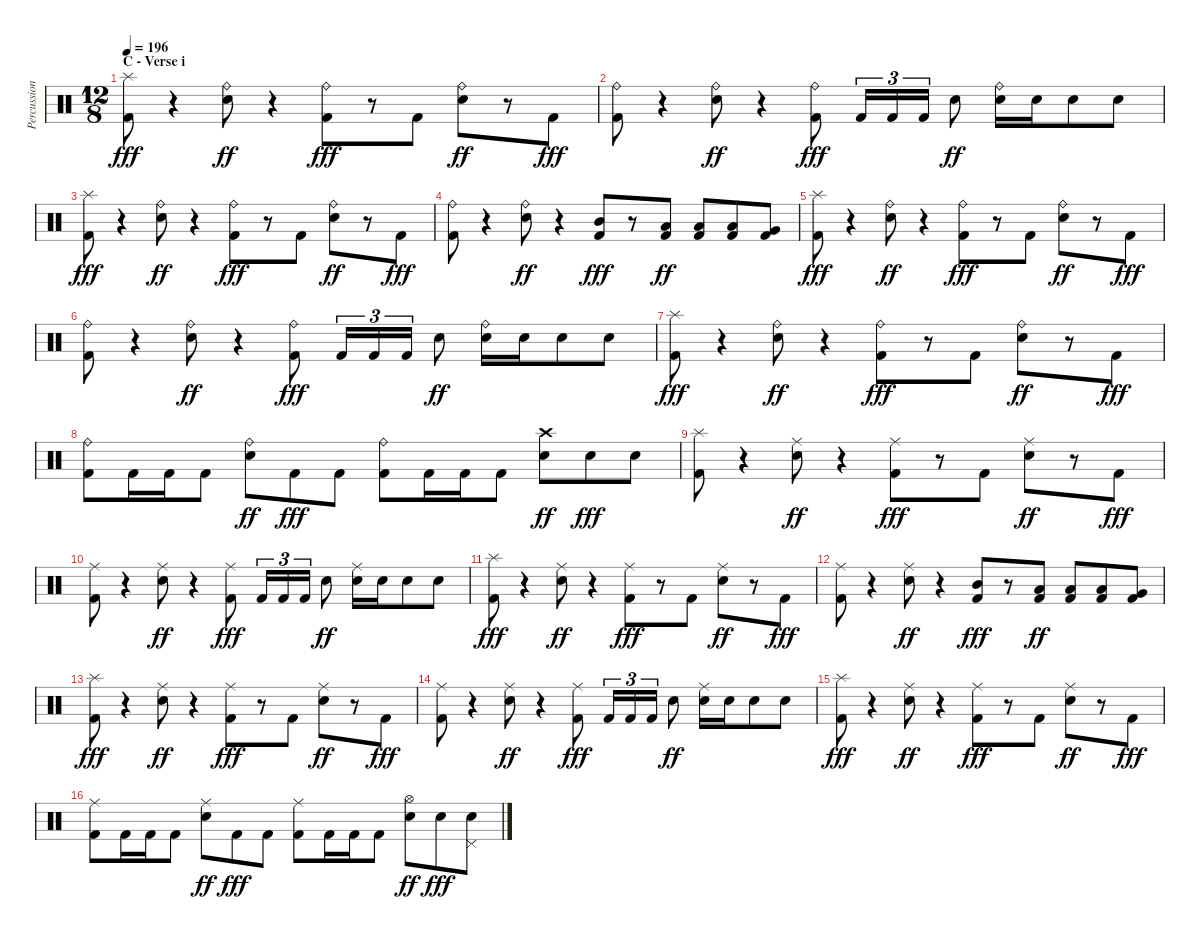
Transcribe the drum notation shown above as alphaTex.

\track ("Percussion" "Percussion") {instrument percussion}
\staff {score}
\articulation defaults
\ts (12 8)
\section ("" "C - Verse i")
\tempo 196
\clef neutral
\ks c
("Splash (hit)" "Kick (hit) 2").8{dy fff volume 12} r.4 ("Ride (bell)" "Electric Snare (hit)").8{dy ff} r.4 ("Ride (bell)" "Kick (hit) 2").8{dy fff} r.8 "Kick (hit) 2".8 ("Ride (bell)" "Electric Snare (hit)").8{dy ff} r.8 "Kick (hit) 2".8{dy fff} |
("Ride (bell)" "Kick (hit) 2").8 r.4 ("Ride (bell)" "Electric Snare (hit)").8{dy ff} r.4 ("Ride (bell)" "Kick (hit) 2").8{dy fff} "Kick (hit) 2".16{tu (3 2)} "Kick (hit) 2".16{tu (3 2)} "Kick (hit) 2".16{tu (3 2)} "Electric Snare (hit)".8{dy ff} ("Ride (bell)" "Electric Snare (hit)").16 "Electric Snare (hit)".16 "Electric Snare (hit)".8 "Electric Snare (hit)".8 |
("Splash (hit)" "Kick (hit) 2").8{dy fff} r.4 ("Ride (bell)" "Electric Snare (hit)").8{dy ff} r.4 ("Ride (bell)" "Kick (hit) 2").8{dy fff} r.8 "Kick (hit) 2".8 ("Ride (bell)" "Electric Snare (hit)").8{dy ff} r.8 "Kick (hit) 2".8{dy fff} |
("Ride (bell)" "Kick (hit) 2").8 r.4 ("Ride (bell)" "Electric Snare (hit)").8{dy ff} r.4 ("Mid Tom (hit)" "Kick (hit) 2").8{dy fff} r.8 ("Low Tom (hit)" "Kick (hit) 2").8{dy ff} ("Low Tom (hit)" "Kick (hit) 2").8 ("Low Tom (hit)" "Kick (hit) 2").8 ("Very Low Tom (hit)" "Kick (hit) 2").8 |
("Splash (hit)" "Kick (hit) 2").8{dy fff} r.4 ("Ride (bell)" "Electric Snare (hit)").8{dy ff} r.4 ("Ride (bell)" "Kick (hit) 2").8{dy fff} r.8 "Kick (hit) 2".8 ("Ride (bell)" "Electric Snare (hit)").8{dy ff} r.8 "Kick (hit) 2".8{dy fff} |
("Ride (bell)" "Kick (hit) 2").8 r.4 ("Ride (bell)" "Electric Snare (hit)").8{dy ff} r.4 ("Ride (bell)" "Kick (hit) 2").8{dy fff} "Kick (hit) 2".16{tu (3 2)} "Kick (hit) 2".16{tu (3 2)} "Kick (hit) 2".16{tu (3 2)} "Electric Snare (hit)".8{dy ff} ("Ride (bell)" "Electric Snare (hit)").16 "Electric Snare (hit)".16 "Electric Snare (hit)".8 "Electric Snare (hit)".8 |
("Splash (hit)" "Kick (hit) 2").8{dy fff} r.4 ("Ride (bell)" "Electric Snare (hit)").8{dy ff} r.4 ("Ride (bell)" "Kick (hit) 2").8{dy fff} r.8 "Kick (hit) 2".8 ("Ride (bell)" "Electric Snare (hit)").8{dy ff} r.8 "Kick (hit) 2".8{dy fff} |
("Ride (bell)" "Kick (hit) 2").8 "Kick (hit) 2".16 "Kick (hit) 2".16 "Kick (hit) 2".8 ("Ride (bell)" "Electric Snare (hit)").8{dy ff} "Kick (hit) 2".8{dy fff} "Kick (hit) 2".8 ("Ride (bell)" "Kick (hit) 2").8 "Kick (hit) 2".16 "Kick (hit) 2".16 "Kick (hit) 2".8 ("Crash high (hit)" "Electric Snare (hit)").8{dy ff} "Electric Snare (hit)".8{dy fff} "Electric Snare (hit)".8 |
("Splash (hit)" "Kick (hit) 2").8 r.4 ("Ride (middle)" "Electric Snare (hit)").8{dy ff} r.4 ("Ride (middle)" "Kick (hit) 2").8{dy fff} r.8 "Kick (hit) 2".8 ("Ride (middle)" "Electric Snare (hit)").8{dy ff} r.8 "Kick (hit) 2".8{dy fff} |
("Ride (middle)" "Kick (hit) 2").8 r.4 ("Ride (middle)" "Electric Snare (hit)").8{dy ff} r.4 ("Ride (middle)" "Kick (hit) 2").8{dy fff} "Kick (hit) 2".16{tu (3 2)} "Kick (hit) 2".16{tu (3 2)} "Kick (hit) 2".16{tu (3 2)} "Electric Snare (hit)".8{dy ff} ("Ride (middle)" "Electric Snare (hit)").16 "Electric Snare (hit)".16 "Electric Snare (hit)".8 "Electric Snare (hit)".8 |
("Splash (hit)" "Kick (hit) 2").8{dy fff} r.4 ("Ride (middle)" "Electric Snare (hit)").8{dy ff} r.4 ("Ride (middle)" "Kick (hit) 2").8{dy fff} r.8 "Kick (hit) 2".8 ("Ride (middle)" "Electric Snare (hit)").8{dy ff} r.8 "Kick (hit) 2".8{dy fff} |
("Ride (middle)" "Kick (hit) 2").8 r.4 ("Ride (middle)" "Electric Snare (hit)").8{dy ff} r.4 ("Mid Tom (hit)" "Kick (hit) 2").8{dy fff} r.8 ("Low Tom (hit)" "Kick (hit) 2").8{dy ff} ("Low Tom (hit)" "Kick (hit) 2").8 ("Low Tom (hit)" "Kick (hit) 2").8 ("Very Low Tom (hit)" "Kick (hit) 2").8 |
("Splash (hit)" "Kick (hit) 2").8{dy fff} r.4 ("Ride (middle)" "Electric Snare (hit)").8{dy ff} r.4 ("Ride (middle)" "Kick (hit) 2").8{dy fff} r.8 "Kick (hit) 2".8 ("Ride (middle)" "Electric Snare (hit)").8{dy ff} r.8 "Kick (hit) 2".8{dy fff} |
("Ride (middle)" "Kick (hit) 2").8 r.4 ("Ride (middle)" "Electric Snare (hit)").8{dy ff} r.4 ("Ride (middle)" "Kick (hit) 2").8{dy fff} "Kick (hit) 2".16{tu (3 2)} "Kick (hit) 2".16{tu (3 2)} "Kick (hit) 2".16{tu (3 2)} "Electric Snare (hit)".8{dy ff} ("Ride (middle)" "Electric Snare (hit)").16 "Electric Snare (hit)".16 "Electric Snare (hit)".8 "Electric Snare (hit)".8 |
("Splash (hit)" "Kick (hit) 2").8{dy fff} r.4 ("Ride (middle)" "Electric Snare (hit)").8{dy ff} r.4 ("Ride (middle)" "Kick (hit) 2").8{dy fff} r.8 "Kick (hit) 2".8 ("Ride (middle)" "Electric Snare (hit)").8{dy ff} r.8 "Kick (hit) 2".8{dy fff} |
("Ride (middle)" "Kick (hit) 2").8 "Kick (hit) 2".16 "Kick (hit) 2".16 "Kick (hit) 2".8 ("Ride (middle)" "Electric Snare (hit)").8{dy ff} "Kick (hit) 2".8{dy fff} "Kick (hit) 2".8 ("Ride (middle)" "Kick (hit) 2").8 "Kick (hit) 2".16 "Kick (hit) 2".16 "Kick (hit) 2".8 ("Hi-Hat (open)" "Electric Snare (hit)").8{dy ff} "Electric Snare (hit)".8{dy fff} ("Pedal Hi-Hat (hit)" "Electric Snare (hit)").8
